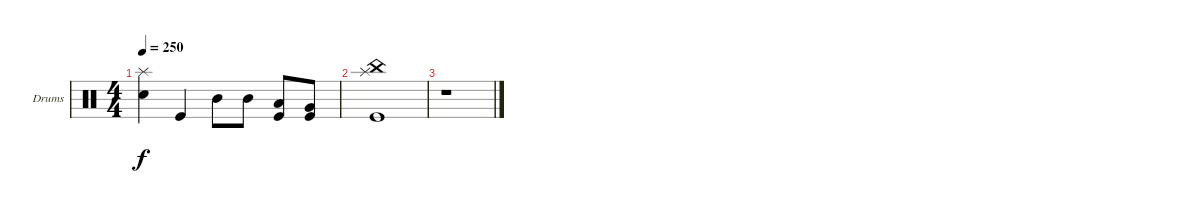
\defaultSystemsLayout 4
\bracketExtendMode groupsimilarinstruments
\firstSystemTrackNameOrientation horizontal
\otherSystemsTrackNameOrientation horizontal
\track ("Drumkit" "Drums") {instrument percussion}
\staff {score}
\articulation defaults
\ts (4 4)
\tempo 250
\clef neutral
\ks c
("Snare (hit) 2" "Splash (hit)").4{dy f} "Kick (hit)".4 "Mid Tom (hit)".8 "Mid Tom (hit)".8 ("Low Tom (hit)" "Kick (hit)").8 ("Very Low Tom (hit)" "Kick (hit)").8 |
("Kick (hit)" "China (hit)" "Splash (hit)").1 |
r.1
